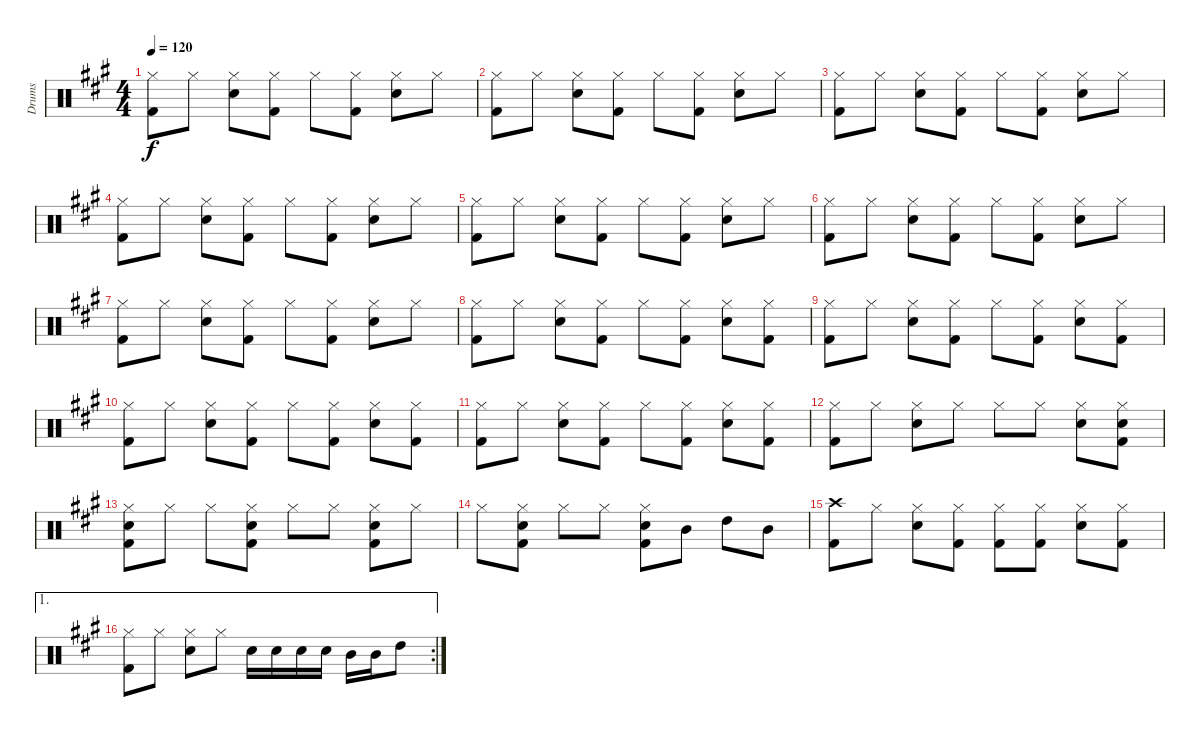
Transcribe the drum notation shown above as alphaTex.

\track ("Drums" "Drums") {instrument percussion}
\staff {score}
\articulation defaults
\ts (4 4)
\tempo 120
\clef neutral
\ks a
("Hi-Hat (closed)" "Kick (hit) 2").8{dy f} "Hi-Hat (closed)".8 ("Hi-Hat (closed)" "Snare (hit) 2").8 ("Hi-Hat (closed)" "Kick (hit) 2").8 "Hi-Hat (closed)".8 ("Hi-Hat (closed)" "Kick (hit) 2").8 ("Hi-Hat (closed)" "Snare (hit) 2").8 "Hi-Hat (closed)".8 |
("Hi-Hat (closed)" "Kick (hit) 2").8 "Hi-Hat (closed)".8 ("Hi-Hat (closed)" "Snare (hit) 2").8 ("Hi-Hat (closed)" "Kick (hit) 2").8 "Hi-Hat (closed)".8 ("Hi-Hat (closed)" "Kick (hit) 2").8 ("Hi-Hat (closed)" "Snare (hit) 2").8 "Hi-Hat (closed)".8 |
("Hi-Hat (closed)" "Kick (hit) 2").8 "Hi-Hat (closed)".8 ("Hi-Hat (closed)" "Snare (hit) 2").8 ("Hi-Hat (closed)" "Kick (hit) 2").8 "Hi-Hat (closed)".8 ("Hi-Hat (closed)" "Kick (hit) 2").8 ("Hi-Hat (closed)" "Snare (hit) 2").8 "Hi-Hat (closed)".8 |
("Hi-Hat (closed)" "Kick (hit) 2").8 "Hi-Hat (closed)".8 ("Hi-Hat (closed)" "Snare (hit) 2").8 ("Hi-Hat (closed)" "Kick (hit) 2").8 "Hi-Hat (closed)".8 ("Hi-Hat (closed)" "Kick (hit) 2").8 ("Hi-Hat (closed)" "Snare (hit) 2").8 "Hi-Hat (closed)".8 |
("Hi-Hat (closed)" "Kick (hit) 2").8 "Hi-Hat (closed)".8 ("Hi-Hat (closed)" "Snare (hit) 2").8 ("Hi-Hat (closed)" "Kick (hit) 2").8 "Hi-Hat (closed)".8 ("Hi-Hat (closed)" "Kick (hit) 2").8 ("Hi-Hat (closed)" "Snare (hit) 2").8 "Hi-Hat (closed)".8 |
("Hi-Hat (closed)" "Kick (hit) 2").8 "Hi-Hat (closed)".8 ("Hi-Hat (closed)" "Snare (hit) 2").8 ("Hi-Hat (closed)" "Kick (hit) 2").8 "Hi-Hat (closed)".8 ("Hi-Hat (closed)" "Kick (hit) 2").8 ("Hi-Hat (closed)" "Snare (hit) 2").8 "Hi-Hat (closed)".8 |
("Hi-Hat (closed)" "Kick (hit) 2").8 "Hi-Hat (closed)".8 ("Hi-Hat (closed)" "Snare (hit) 2").8 ("Hi-Hat (closed)" "Kick (hit) 2").8 "Hi-Hat (closed)".8 ("Hi-Hat (closed)" "Kick (hit) 2").8 ("Hi-Hat (closed)" "Snare (hit) 2").8 "Hi-Hat (closed)".8 |
("Hi-Hat (closed)" "Kick (hit) 2").8 "Hi-Hat (closed)".8 ("Hi-Hat (closed)" "Snare (hit) 2").8 ("Hi-Hat (closed)" "Kick (hit) 2").8 "Hi-Hat (closed)".8 ("Hi-Hat (closed)" "Kick (hit) 2").8 ("Hi-Hat (closed)" "Snare (hit) 2").8 ("Hi-Hat (closed)" "Kick (hit) 2").8 |
("Hi-Hat (closed)" "Kick (hit) 2").8 "Hi-Hat (closed)".8 ("Hi-Hat (closed)" "Snare (hit) 2").8 ("Hi-Hat (closed)" "Kick (hit) 2").8 "Hi-Hat (closed)".8 ("Hi-Hat (closed)" "Kick (hit) 2").8 ("Hi-Hat (closed)" "Snare (hit) 2").8 ("Hi-Hat (closed)" "Kick (hit) 2").8 |
("Hi-Hat (closed)" "Kick (hit) 2").8 "Hi-Hat (closed)".8 ("Hi-Hat (closed)" "Snare (hit) 2").8 ("Hi-Hat (closed)" "Kick (hit) 2").8 "Hi-Hat (closed)".8 ("Hi-Hat (closed)" "Kick (hit) 2").8 ("Hi-Hat (closed)" "Snare (hit) 2").8 ("Hi-Hat (closed)" "Kick (hit) 2").8 |
("Hi-Hat (closed)" "Kick (hit) 2").8 "Hi-Hat (closed)".8 ("Hi-Hat (closed)" "Snare (hit) 2").8 ("Hi-Hat (closed)" "Kick (hit) 2").8 "Hi-Hat (closed)".8 ("Hi-Hat (closed)" "Kick (hit) 2").8 ("Hi-Hat (closed)" "Snare (hit) 2").8 ("Hi-Hat (closed)" "Kick (hit) 2").8 |
("Hi-Hat (closed)" "Kick (hit) 2").8 "Hi-Hat (closed)".8 ("Hi-Hat (closed)" "Snare (hit) 2").8 "Hi-Hat (closed)".8 "Hi-Hat (closed)".8 "Hi-Hat (closed)".8 ("Hi-Hat (closed)" "Snare (hit) 2").8 ("Hi-Hat (closed)" "Snare (hit) 2" "Kick (hit) 2").8 |
("Hi-Hat (closed)" "Snare (hit) 2" "Kick (hit) 2").8 "Hi-Hat (closed)".8 "Hi-Hat (closed)".8 ("Hi-Hat (closed)" "Snare (hit) 2" "Kick (hit) 2").8 "Hi-Hat (closed)".8 "Hi-Hat (closed)".8 ("Hi-Hat (closed)" "Snare (hit) 2" "Kick (hit) 2").8 "Hi-Hat (closed)".8 |
"Hi-Hat (closed)".8 ("Hi-Hat (closed)" "Snare (hit) 2" "Kick (hit) 2").8 "Hi-Hat (closed)".8 "Hi-Hat (closed)".8 ("Hi-Hat (closed)" "Snare (hit) 2" "Kick (hit) 2").8 "Mid Tom (hit)".8 "High Tom (hit)".8 "Mid Tom (hit)".8 |
("Crash high (hit)" "Kick (hit) 2").8 "Hi-Hat (closed)".8 ("Hi-Hat (closed)" "Snare (hit) 2").8 ("Hi-Hat (closed)" "Kick (hit) 2").8 ("Hi-Hat (closed)" "Kick (hit) 2").8 ("Hi-Hat (closed)" "Kick (hit) 2").8 ("Hi-Hat (closed)" "Snare (hit) 2").8 ("Hi-Hat (closed)" "Kick (hit) 2").8 |
\ae 1
\rc 2
("Hi-Hat (closed)" "Kick (hit) 2").8 "Hi-Hat (closed)".8 ("Hi-Hat (closed)" "Snare (hit) 2").8 "Hi-Hat (closed)".8 "Snare (hit) 2".16 "Snare (hit) 2".16 "Snare (hit) 2".16 "Snare (hit) 2".16 "Mid Tom (hit)".16 "Mid Tom (hit)".16 "High Tom (hit)".8
